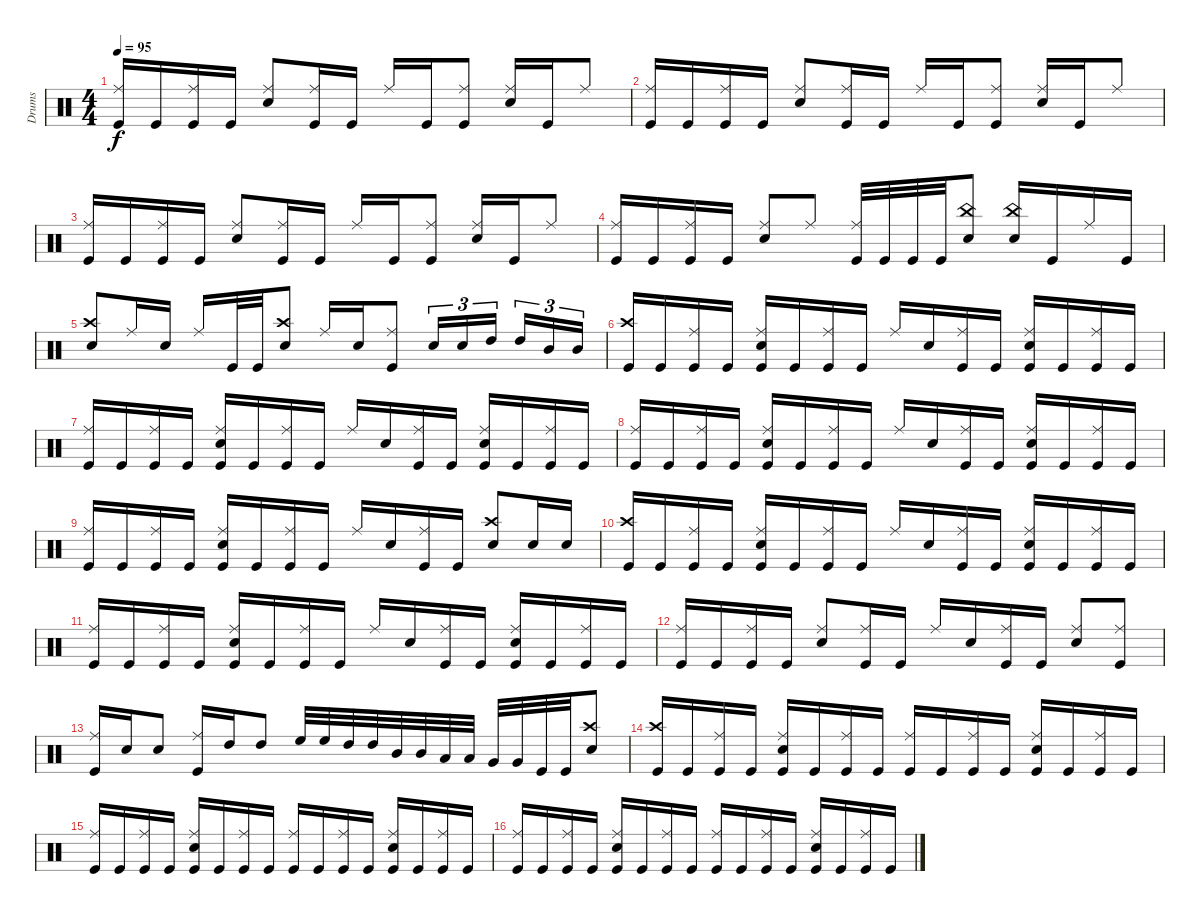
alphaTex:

\track ("Drums" "Drums") {instrument percussion}
\staff {score}
\articulation defaults
\ts (4 4)
\tempo 95
\clef neutral
\ks c
("Kick (hit)" "Ride (middle)").16{dy f beam Up} "Kick (hit)".16{beam Up} ("Kick (hit)" "Ride (middle)").16{beam Up} "Kick (hit)".16{beam Up} ("Snare (hit) 2" "Ride (middle)").8{beam Up} ("Ride (middle)" "Kick (hit)").16{beam Up} "Kick (hit)".16{beam Up} "Ride (middle)".16{beam Up} "Kick (hit)".16{beam Up} ("Kick (hit)" "Ride (middle)").8{beam Up} ("Snare (hit) 2" "Ride (middle)").16{beam Up} "Kick (hit)".16{beam Up} "Ride (middle)".8{beam Up} |
("Kick (hit)" "Ride (middle)").16{beam Up} "Kick (hit)".16{beam Up} ("Kick (hit)" "Ride (middle)").16{beam Up} "Kick (hit)".16{beam Up} ("Snare (hit) 2" "Ride (middle)").8{beam Up} ("Ride (middle)" "Kick (hit)").16{beam Up} "Kick (hit)".16{beam Up} "Ride (middle)".16{beam Up} "Kick (hit)".16{beam Up} ("Kick (hit)" "Ride (middle)").8{beam Up} ("Snare (hit) 2" "Ride (middle)").16{beam Up} "Kick (hit)".16{beam Up} "Ride (middle)".8{beam Up} |
("Kick (hit)" "Ride (middle)").16{beam Up} "Kick (hit)".16{beam Up} ("Kick (hit)" "Ride (middle)").16{beam Up} "Kick (hit)".16{beam Up} ("Snare (hit) 2" "Ride (middle)").8{beam Up} ("Ride (middle)" "Kick (hit)").16{beam Up} "Kick (hit)".16{beam Up} "Ride (middle)".16{beam Up} "Kick (hit)".16{beam Up} ("Kick (hit)" "Ride (middle)").8{beam Up} ("Snare (hit) 2" "Ride (middle)").16{beam Up} "Kick (hit)".16{beam Up} "Ride (middle)".8{beam Up} |
("Kick (hit)" "Ride (middle)").16{beam Up} "Kick (hit)".16{beam Up} ("Kick (hit)" "Ride (middle)").16{beam Up} "Kick (hit)".16{beam Up} ("Snare (hit) 2" "Ride (middle)").8{beam Up} "Ride (middle)".8{beam Up} ("Kick (hit)" "Ride (middle)").32{beam Up} "Kick (hit)".32{beam Up} "Kick (hit)".32{beam Up} "Kick (hit)".32{beam Up} ("Snare (hit) 2" "China (hit)").8{beam Up} ("China (hit)" "Snare (hit) 2").16{beam Up} "Kick (hit)".16{beam Up} "Ride (middle)".16{beam Up} "Kick (hit)".16{beam Up} |
("Snare (hit) 2" "Crash high (hit)").8{beam Up} "Ride (middle)".16{beam Up} "Snare (hit) 2".16{beam Up} "Ride (middle)".16{beam Up} "Kick (hit)".32{beam Up} "Kick (hit)".32{beam Up} ("Snare (hit) 2" "Crash high (hit)").8{beam Up} "Ride (middle)".16{beam Up} "Snare (hit) 2".16{beam Up} ("Kick (hit)" "Ride (middle)").8{beam Up} "Snare (hit) 2".16{tu (3 2) beam Up} "Snare (hit) 2".16{tu (3 2) beam Up} "High Tom (hit)".16{tu (3 2) beam Up beam splitsecondary} "High Tom (hit)".16{tu (3 2) beam Up} "Mid Tom (hit)".16{tu (3 2) beam Up} "Mid Tom (hit)".16{tu (3 2) beam Up} |
("Kick (hit)" "Crash high (hit)").16{beam Up} "Kick (hit)".16{beam Up} ("Kick (hit)" "Ride (middle)").16{beam Up} "Kick (hit)".16{beam Up} ("Ride (middle)" "Snare (hit) 2" "Kick (hit)").16{beam Up} "Kick (hit)".16{beam Up} ("Kick (hit)" "Ride (middle)").16{beam Up} "Kick (hit)".16{beam Up} "Ride (middle)".16{beam Up} "Snare (hit) 2".16{beam Up} ("Kick (hit)" "Ride (middle)").16{beam Up} "Kick (hit)".16{beam Up} ("Kick (hit)" "Ride (middle)" "Snare (hit) 2").16{beam Up} "Kick (hit)".16{beam Up} ("Kick (hit)" "Ride (middle)").16{beam Up} "Kick (hit)".16{beam Up} |
("Kick (hit)" "Ride (middle)").16{beam Up} "Kick (hit)".16{beam Up} ("Kick (hit)" "Ride (middle)").16{beam Up} "Kick (hit)".16{beam Up} ("Ride (middle)" "Snare (hit) 2" "Kick (hit)").16{beam Up} "Kick (hit)".16{beam Up} ("Kick (hit)" "Ride (middle)").16{beam Up} "Kick (hit)".16{beam Up} "Ride (middle)".16{beam Up} "Snare (hit) 2".16{beam Up} ("Kick (hit)" "Ride (middle)").16{beam Up} "Kick (hit)".16{beam Up} ("Kick (hit)" "Ride (middle)" "Snare (hit) 2").16{beam Up} "Kick (hit)".16{beam Up} ("Kick (hit)" "Ride (middle)").16{beam Up} "Kick (hit)".16{beam Up} |
("Kick (hit)" "Ride (middle)").16{beam Up} "Kick (hit)".16{beam Up} ("Kick (hit)" "Ride (middle)").16{beam Up} "Kick (hit)".16{beam Up} ("Ride (middle)" "Snare (hit) 2" "Kick (hit)").16{beam Up} "Kick (hit)".16{beam Up} ("Kick (hit)" "Ride (middle)").16{beam Up} "Kick (hit)".16{beam Up} "Ride (middle)".16{beam Up} "Snare (hit) 2".16{beam Up} ("Kick (hit)" "Ride (middle)").16{beam Up} "Kick (hit)".16{beam Up} ("Kick (hit)" "Ride (middle)" "Snare (hit) 2").16{beam Up} "Kick (hit)".16{beam Up} ("Kick (hit)" "Ride (middle)").16{beam Up} "Kick (hit)".16{beam Up} |
("Kick (hit)" "Ride (middle)").16{beam Up} "Kick (hit)".16{beam Up} ("Kick (hit)" "Ride (middle)").16{beam Up} "Kick (hit)".16{beam Up} ("Ride (middle)" "Snare (hit) 2" "Kick (hit)").16{beam Up} "Kick (hit)".16{beam Up} ("Kick (hit)" "Ride (middle)").16{beam Up} "Kick (hit)".16{beam Up} "Ride (middle)".16{beam Up} "Snare (hit) 2".16{beam Up} ("Kick (hit)" "Ride (middle)").16{beam Up} "Kick (hit)".16{beam Up} ("Crash high (hit)" "Snare (hit) 2").8{beam Up} "Snare (hit) 2".16{beam Up} "Snare (hit) 2".16{beam Up} |
("Kick (hit)" "Crash high (hit)").16{beam Up} "Kick (hit)".16{beam Up} ("Kick (hit)" "Ride (middle)").16{beam Up} "Kick (hit)".16{beam Up} ("Ride (middle)" "Snare (hit) 2" "Kick (hit)").16{beam Up} "Kick (hit)".16{beam Up} ("Kick (hit)" "Ride (middle)").16{beam Up} "Kick (hit)".16{beam Up} "Ride (middle)".16{beam Up} "Snare (hit) 2".16{beam Up} ("Kick (hit)" "Ride (middle)").16{beam Up} "Kick (hit)".16{beam Up} ("Kick (hit)" "Ride (middle)" "Snare (hit) 2").16{beam Up} "Kick (hit)".16{beam Up} ("Kick (hit)" "Ride (middle)").16{beam Up} "Kick (hit)".16{beam Up} |
("Kick (hit)" "Ride (middle)").16{beam Up} "Kick (hit)".16{beam Up} ("Kick (hit)" "Ride (middle)").16{beam Up} "Kick (hit)".16{beam Up} ("Ride (middle)" "Snare (hit) 2" "Kick (hit)").16{beam Up} "Kick (hit)".16{beam Up} ("Kick (hit)" "Ride (middle)").16{beam Up} "Kick (hit)".16{beam Up} "Ride (middle)".16{beam Up} "Snare (hit) 2".16{beam Up} ("Kick (hit)" "Ride (middle)").16{beam Up} "Kick (hit)".16{beam Up} ("Kick (hit)" "Ride (middle)" "Snare (hit) 2").16{beam Up} "Kick (hit)".16{beam Up} ("Kick (hit)" "Ride (middle)").16{beam Up} "Kick (hit)".16{beam Up} |
("Kick (hit)" "Ride (middle)").16{beam Up} "Kick (hit)".16{beam Up} ("Kick (hit)" "Ride (middle)").16{beam Up} "Kick (hit)".16{beam Up} ("Ride (middle)" "Snare (hit) 2").8{beam Up} ("Kick (hit)" "Ride (middle)").16{beam Up} "Kick (hit)".16{beam Up} "Ride (middle)".16{beam Up} "Snare (hit) 2".16{beam Up} ("Kick (hit)" "Ride (middle)").16{beam Up} "Kick (hit)".16{beam Up} ("Ride (middle)" "Snare (hit) 2").8{beam Up} ("Kick (hit)" "Ride (middle)").8{beam Up} |
("Kick (hit)" "Ride (middle)").16{beam Up} "Snare (hit) 2".16{beam Up} "Snare (hit) 2".8{beam Up} ("Kick (hit)" "Ride (middle)").16{beam Up} "High Tom (hit)".16{beam Up} "High Tom (hit)".8{beam Up} "High Floor Tom (hit)".32{beam Up} "High Floor Tom (hit)".32{beam Up} "High Tom (hit)".32{beam Up} "High Tom (hit)".32{beam Up} "Mid Tom (hit)".32{beam Up} "Mid Tom (hit)".32{beam Up} "Low Tom (hit)".32{beam Up} "Low Tom (hit)".32{beam Up} "Very Low Tom (hit)".32{beam Up} "Very Low Tom (hit)".32{beam Up} "Kick (hit)".32{beam Up} "Kick (hit)".32{beam Up} ("Snare (hit) 2" "Crash high (hit)").8{beam Up} |
("Kick (hit)" "Crash high (hit)").16{beam Up} "Kick (hit)".16{beam Up} ("Kick (hit)" "Ride (middle)").16{beam Up} "Kick (hit)".16{beam Up} ("Ride (middle)" "Snare (hit) 2" "Kick (hit)").16{beam Up} "Kick (hit)".16{beam Up} ("Kick (hit)" "Ride (middle)").16{beam Up} "Kick (hit)".16{beam Up} ("Kick (hit)" "Ride (middle)").16{beam Up} "Kick (hit)".16{beam Up} ("Kick (hit)" "Ride (middle)").16{beam Up} "Kick (hit)".16{beam Up} ("Kick (hit)" "Ride (middle)" "Snare (hit) 2").16{beam Up} "Kick (hit)".16{beam Up} ("Kick (hit)" "Ride (middle)").16{beam Up} "Kick (hit)".16{beam Up} |
("Kick (hit)" "Ride (middle)").16{beam Up} "Kick (hit)".16{beam Up} ("Kick (hit)" "Ride (middle)").16{beam Up} "Kick (hit)".16{beam Up} ("Kick (hit)" "Ride (middle)" "Snare (hit) 2").16{beam Up} "Kick (hit)".16{beam Up} ("Kick (hit)" "Ride (middle)").16{beam Up} "Kick (hit)".16{beam Up} ("Kick (hit)" "Ride (middle)").16{beam Up} "Kick (hit)".16{beam Up} ("Kick (hit)" "Ride (middle)").16{beam Up} "Kick (hit)".16{beam Up} ("Kick (hit)" "Ride (middle)" "Snare (hit) 2").16{beam Up} "Kick (hit)".16{beam Up} ("Kick (hit)" "Ride (middle)").16{beam Up} "Kick (hit)".16{beam Up} |
("Kick (hit)" "Ride (middle)").16{beam Up} "Kick (hit)".16{beam Up} ("Kick (hit)" "Ride (middle)").16{beam Up} "Kick (hit)".16{beam Up} ("Kick (hit)" "Ride (middle)" "Snare (hit) 2").16{beam Up} "Kick (hit)".16{beam Up} ("Kick (hit)" "Ride (middle)").16{beam Up} "Kick (hit)".16{beam Up} ("Kick (hit)" "Ride (middle)").16{beam Up} "Kick (hit)".16{beam Up} ("Kick (hit)" "Ride (middle)").16{beam Up} "Kick (hit)".16{beam Up} ("Kick (hit)" "Ride (middle)" "Snare (hit) 2").16{beam Up} "Kick (hit)".16{beam Up} ("Kick (hit)" "Ride (middle)").16{beam Up} "Kick (hit)".16{beam Up}
